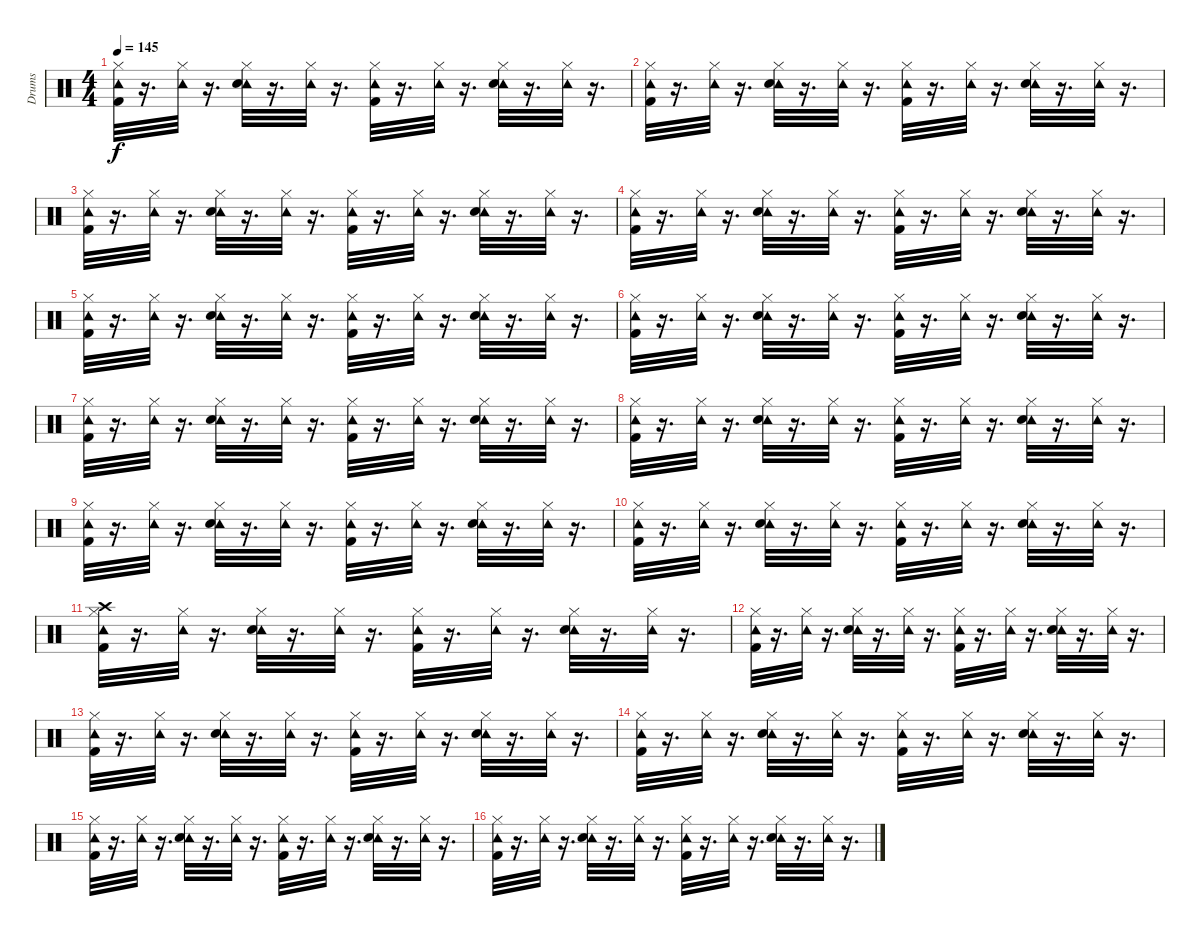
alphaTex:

\track ("Drums" "Drums") {instrument percussion}
\staff {score}
\articulation defaults
\ts (4 4)
\tempo 145
\clef neutral
\ks c
("Tambourine (hit)" "Kick (hit) 2" "Hi-Hat (closed)").32{dy f} r.16{d} ("Tambourine (hit)" "Hi-Hat (closed)").32 r.16{d} ("Tambourine (hit)" "Hi-Hat (closed)" "Snare (hit) 2").32 r.16{d} ("Tambourine (hit)" "Hi-Hat (closed)").32 r.16{d} ("Tambourine (hit)" "Kick (hit) 2" "Hi-Hat (closed)").32 r.16{d} ("Tambourine (hit)" "Hi-Hat (closed)").32 r.16{d} ("Tambourine (hit)" "Snare (hit) 2" "Hi-Hat (closed)").32 r.16{d} ("Tambourine (hit)" "Hi-Hat (closed)").32 r.16{d} |
("Tambourine (hit)" "Kick (hit) 2" "Hi-Hat (closed)").32 r.16{d} ("Tambourine (hit)" "Hi-Hat (closed)").32 r.16{d} ("Tambourine (hit)" "Hi-Hat (closed)" "Snare (hit) 2").32 r.16{d} ("Tambourine (hit)" "Hi-Hat (closed)").32 r.16{d} ("Tambourine (hit)" "Kick (hit) 2" "Hi-Hat (closed)").32 r.16{d} ("Tambourine (hit)" "Hi-Hat (closed)").32 r.16{d} ("Tambourine (hit)" "Snare (hit) 2" "Hi-Hat (closed)").32 r.16{d} ("Tambourine (hit)" "Hi-Hat (closed)").32 r.16{d} |
("Tambourine (hit)" "Kick (hit) 2" "Hi-Hat (closed)").32 r.16{d} ("Tambourine (hit)" "Hi-Hat (closed)").32 r.16{d} ("Tambourine (hit)" "Hi-Hat (closed)" "Snare (hit) 2").32 r.16{d} ("Tambourine (hit)" "Hi-Hat (closed)").32 r.16{d} ("Tambourine (hit)" "Kick (hit) 2" "Hi-Hat (closed)").32 r.16{d} ("Tambourine (hit)" "Hi-Hat (closed)").32 r.16{d} ("Tambourine (hit)" "Snare (hit) 2" "Hi-Hat (closed)").32 r.16{d} ("Tambourine (hit)" "Hi-Hat (closed)").32 r.16{d} |
("Tambourine (hit)" "Kick (hit) 2" "Hi-Hat (closed)").32 r.16{d} ("Tambourine (hit)" "Hi-Hat (closed)").32 r.16{d} ("Tambourine (hit)" "Hi-Hat (closed)" "Snare (hit) 2").32 r.16{d} ("Tambourine (hit)" "Hi-Hat (closed)").32 r.16{d} ("Tambourine (hit)" "Kick (hit) 2" "Hi-Hat (closed)").32 r.16{d} ("Tambourine (hit)" "Hi-Hat (closed)").32 r.16{d} ("Tambourine (hit)" "Snare (hit) 2" "Hi-Hat (closed)").32 r.16{d} ("Tambourine (hit)" "Hi-Hat (closed)").32 r.16{d} |
("Tambourine (hit)" "Kick (hit) 2" "Hi-Hat (closed)").32 r.16{d} ("Tambourine (hit)" "Hi-Hat (closed)").32 r.16{d} ("Tambourine (hit)" "Hi-Hat (closed)" "Snare (hit) 2").32 r.16{d} ("Tambourine (hit)" "Hi-Hat (closed)").32 r.16{d} ("Tambourine (hit)" "Kick (hit) 2" "Hi-Hat (closed)").32 r.16{d} ("Tambourine (hit)" "Hi-Hat (closed)").32 r.16{d} ("Tambourine (hit)" "Snare (hit) 2" "Hi-Hat (closed)").32 r.16{d} ("Tambourine (hit)" "Hi-Hat (closed)").32 r.16{d} |
("Tambourine (hit)" "Kick (hit) 2" "Hi-Hat (closed)").32 r.16{d} ("Tambourine (hit)" "Hi-Hat (closed)").32 r.16{d} ("Tambourine (hit)" "Hi-Hat (closed)" "Snare (hit) 2").32 r.16{d} ("Tambourine (hit)" "Hi-Hat (closed)").32 r.16{d} ("Tambourine (hit)" "Kick (hit) 2" "Hi-Hat (closed)").32 r.16{d} ("Tambourine (hit)" "Hi-Hat (closed)").32 r.16{d} ("Tambourine (hit)" "Snare (hit) 2" "Hi-Hat (closed)").32 r.16{d} ("Tambourine (hit)" "Hi-Hat (closed)").32 r.16{d} |
("Tambourine (hit)" "Kick (hit) 2" "Hi-Hat (closed)").32 r.16{d} ("Tambourine (hit)" "Hi-Hat (closed)").32 r.16{d} ("Tambourine (hit)" "Hi-Hat (closed)" "Snare (hit) 2").32 r.16{d} ("Tambourine (hit)" "Hi-Hat (closed)").32 r.16{d} ("Tambourine (hit)" "Kick (hit) 2" "Hi-Hat (closed)").32 r.16{d} ("Tambourine (hit)" "Hi-Hat (closed)").32 r.16{d} ("Tambourine (hit)" "Snare (hit) 2" "Hi-Hat (closed)").32 r.16{d} ("Tambourine (hit)" "Hi-Hat (closed)").32 r.16{d} |
("Tambourine (hit)" "Kick (hit) 2" "Hi-Hat (closed)").32 r.16{d} ("Tambourine (hit)" "Hi-Hat (closed)").32 r.16{d} ("Tambourine (hit)" "Hi-Hat (closed)" "Snare (hit) 2").32 r.16{d} ("Tambourine (hit)" "Hi-Hat (closed)").32 r.16{d} ("Tambourine (hit)" "Kick (hit) 2" "Hi-Hat (closed)").32 r.16{d} ("Tambourine (hit)" "Hi-Hat (closed)").32 r.16{d} ("Tambourine (hit)" "Snare (hit) 2" "Hi-Hat (closed)").32 r.16{d} ("Tambourine (hit)" "Hi-Hat (closed)").32 r.16{d} |
("Tambourine (hit)" "Kick (hit) 2" "Hi-Hat (closed)").32 r.16{d} ("Tambourine (hit)" "Hi-Hat (closed)").32 r.16{d} ("Tambourine (hit)" "Hi-Hat (closed)" "Snare (hit) 2").32 r.16{d} ("Tambourine (hit)" "Hi-Hat (closed)").32 r.16{d} ("Tambourine (hit)" "Kick (hit) 2" "Hi-Hat (closed)").32 r.16{d} ("Tambourine (hit)" "Hi-Hat (closed)").32 r.16{d} ("Tambourine (hit)" "Snare (hit) 2" "Hi-Hat (closed)").32 r.16{d} ("Tambourine (hit)" "Hi-Hat (closed)").32 r.16{d} |
("Tambourine (hit)" "Kick (hit) 2" "Hi-Hat (closed)").32 r.16{d} ("Tambourine (hit)" "Hi-Hat (closed)").32 r.16{d} ("Tambourine (hit)" "Hi-Hat (closed)" "Snare (hit) 2").32 r.16{d} ("Tambourine (hit)" "Hi-Hat (closed)").32 r.16{d} ("Tambourine (hit)" "Kick (hit) 2" "Hi-Hat (closed)").32 r.16{d} ("Tambourine (hit)" "Hi-Hat (closed)").32 r.16{d} ("Tambourine (hit)" "Snare (hit) 2" "Hi-Hat (closed)").32 r.16{d} ("Tambourine (hit)" "Hi-Hat (closed)").32 r.16{d} |
("Tambourine (hit)" "Kick (hit) 2" "Hi-Hat (closed)" "Crash high (hit)").32 r.16{d} ("Tambourine (hit)" "Hi-Hat (closed)").32 r.16{d} ("Tambourine (hit)" "Hi-Hat (closed)" "Snare (hit) 2").32 r.16{d} ("Tambourine (hit)" "Hi-Hat (closed)").32 r.16{d} ("Tambourine (hit)" "Kick (hit) 2" "Hi-Hat (closed)").32 r.16{d} ("Tambourine (hit)" "Hi-Hat (closed)").32 r.16{d} ("Tambourine (hit)" "Snare (hit) 2" "Hi-Hat (closed)").32 r.16{d} ("Tambourine (hit)" "Hi-Hat (closed)").32 r.16{d} |
("Tambourine (hit)" "Kick (hit) 2" "Hi-Hat (closed)").32 r.16{d} ("Tambourine (hit)" "Hi-Hat (closed)").32 r.16{d} ("Tambourine (hit)" "Hi-Hat (closed)" "Snare (hit) 2").32 r.16{d} ("Tambourine (hit)" "Hi-Hat (closed)").32 r.16{d} ("Tambourine (hit)" "Kick (hit) 2" "Hi-Hat (closed)").32 r.16{d} ("Tambourine (hit)" "Hi-Hat (closed)").32 r.16{d} ("Tambourine (hit)" "Snare (hit) 2" "Hi-Hat (closed)").32 r.16{d} ("Tambourine (hit)" "Hi-Hat (closed)").32 r.16{d} |
("Tambourine (hit)" "Kick (hit) 2" "Hi-Hat (closed)").32 r.16{d} ("Tambourine (hit)" "Hi-Hat (closed)").32 r.16{d} ("Tambourine (hit)" "Hi-Hat (closed)" "Snare (hit) 2").32 r.16{d} ("Tambourine (hit)" "Hi-Hat (closed)").32 r.16{d} ("Tambourine (hit)" "Kick (hit) 2" "Hi-Hat (closed)").32 r.16{d} ("Tambourine (hit)" "Hi-Hat (closed)").32 r.16{d} ("Tambourine (hit)" "Snare (hit) 2" "Hi-Hat (closed)").32 r.16{d} ("Tambourine (hit)" "Hi-Hat (closed)").32 r.16{d} |
("Tambourine (hit)" "Kick (hit) 2" "Hi-Hat (closed)").32 r.16{d} ("Tambourine (hit)" "Hi-Hat (closed)").32 r.16{d} ("Tambourine (hit)" "Hi-Hat (closed)" "Snare (hit) 2").32 r.16{d} ("Tambourine (hit)" "Hi-Hat (closed)").32 r.16{d} ("Tambourine (hit)" "Kick (hit) 2" "Hi-Hat (closed)").32 r.16{d} ("Tambourine (hit)" "Hi-Hat (closed)").32 r.16{d} ("Tambourine (hit)" "Snare (hit) 2" "Hi-Hat (closed)").32 r.16{d} ("Tambourine (hit)" "Hi-Hat (closed)").32 r.16{d} |
("Tambourine (hit)" "Kick (hit) 2" "Hi-Hat (closed)").32 r.16{d} ("Tambourine (hit)" "Hi-Hat (closed)").32 r.16{d} ("Tambourine (hit)" "Hi-Hat (closed)" "Snare (hit) 2").32 r.16{d} ("Tambourine (hit)" "Hi-Hat (closed)").32 r.16{d} ("Tambourine (hit)" "Kick (hit) 2" "Hi-Hat (closed)").32 r.16{d} ("Tambourine (hit)" "Hi-Hat (closed)").32 r.16{d} ("Tambourine (hit)" "Snare (hit) 2" "Hi-Hat (closed)").32 r.16{d} ("Tambourine (hit)" "Hi-Hat (closed)").32 r.16{d} |
("Tambourine (hit)" "Kick (hit) 2" "Hi-Hat (closed)").32 r.16{d} ("Tambourine (hit)" "Hi-Hat (closed)").32 r.16{d} ("Tambourine (hit)" "Hi-Hat (closed)" "Snare (hit) 2").32 r.16{d} ("Tambourine (hit)" "Hi-Hat (closed)").32 r.16{d} ("Tambourine (hit)" "Kick (hit) 2" "Hi-Hat (closed)").32 r.16{d} ("Tambourine (hit)" "Hi-Hat (closed)").32 r.16{d} ("Tambourine (hit)" "Snare (hit) 2" "Hi-Hat (closed)").32 r.16{d} ("Tambourine (hit)" "Hi-Hat (closed)").32 r.16{d}
